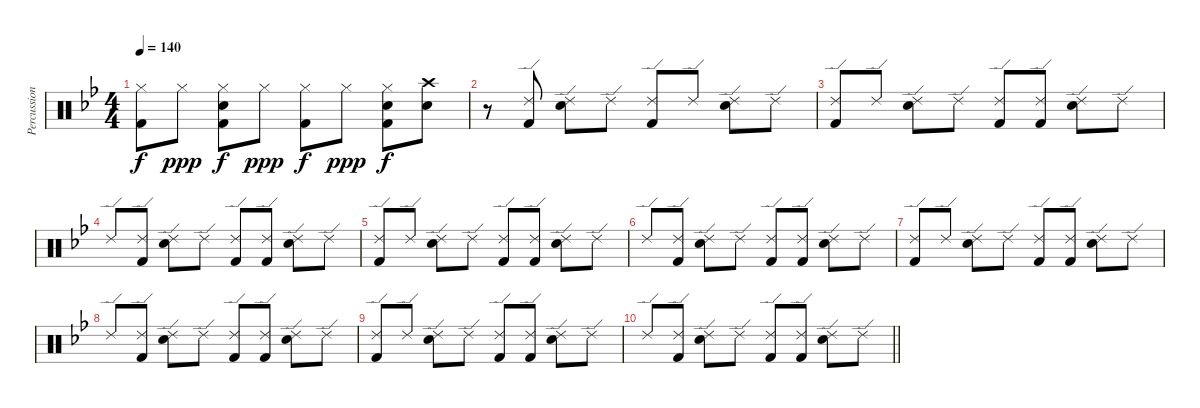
\track ("Percussion" "Percussion") {instrument percussion}
\staff {score}
\articulation defaults
\ts (4 4)
\tempo 140
\clef neutral
\ks bb
("Hi-Hat (closed)" "Kick (hit) 2").8{dy f} "Hi-Hat (closed)".8{dy ppp} ("Hi-Hat (closed)" "Electric Snare (hit)" "Kick (hit) 2").8{dy f} "Hi-Hat (closed)".8{dy ppp} ("Hi-Hat (closed)" "Kick (hit) 2").8{dy f} "Hi-Hat (closed)".8{dy ppp} ("Hi-Hat (closed)" "Electric Snare (hit)" "Kick (hit) 2").8{dy f} ("Crash high (hit)" "Electric Snare (hit)").8 |
r.8 ("Ride (edge) 2" "Kick (hit) 2").8 ("Ride (edge) 2" "Electric Snare (hit)").8 "Ride (edge) 2".8 ("Ride (edge) 2" "Kick (hit) 2").8 "Ride (edge) 2".8 ("Ride (edge) 2" "Electric Snare (hit)").8 "Ride (edge) 2".8 |
("Ride (edge) 2" "Kick (hit) 2").8 "Ride (edge) 2".8 ("Ride (edge) 2" "Electric Snare (hit)").8 "Ride (edge) 2".8 ("Ride (edge) 2" "Kick (hit) 2").8 ("Ride (edge) 2" "Kick (hit) 2").8 ("Ride (edge) 2" "Electric Snare (hit)").8 "Ride (edge) 2".8 |
"Ride (edge) 2".8 ("Ride (edge) 2" "Kick (hit) 2").8 ("Ride (edge) 2" "Electric Snare (hit)").8 "Ride (edge) 2".8 ("Ride (edge) 2" "Kick (hit) 2").8 ("Ride (edge) 2" "Kick (hit) 2").8 ("Ride (edge) 2" "Electric Snare (hit)").8 "Ride (edge) 2".8 |
("Ride (edge) 2" "Kick (hit) 2").8 "Ride (edge) 2".8 ("Ride (edge) 2" "Electric Snare (hit)").8 "Ride (edge) 2".8 ("Ride (edge) 2" "Kick (hit) 2").8 ("Ride (edge) 2" "Kick (hit) 2").8 ("Ride (edge) 2" "Electric Snare (hit)").8 "Ride (edge) 2".8 |
"Ride (edge) 2".8 ("Ride (edge) 2" "Kick (hit) 2").8 ("Ride (edge) 2" "Electric Snare (hit)").8 "Ride (edge) 2".8 ("Ride (edge) 2" "Kick (hit) 2").8 ("Ride (edge) 2" "Kick (hit) 2").8 ("Ride (edge) 2" "Electric Snare (hit)").8 "Ride (edge) 2".8 |
("Ride (edge) 2" "Kick (hit) 2").8 "Ride (edge) 2".8 ("Ride (edge) 2" "Electric Snare (hit)").8 "Ride (edge) 2".8 ("Ride (edge) 2" "Kick (hit) 2").8 ("Ride (edge) 2" "Kick (hit) 2").8 ("Ride (edge) 2" "Electric Snare (hit)").8 "Ride (edge) 2".8 |
"Ride (edge) 2".8 ("Ride (edge) 2" "Kick (hit) 2").8 ("Ride (edge) 2" "Electric Snare (hit)").8 "Ride (edge) 2".8 ("Ride (edge) 2" "Kick (hit) 2").8 ("Ride (edge) 2" "Kick (hit) 2").8 ("Ride (edge) 2" "Electric Snare (hit)").8 "Ride (edge) 2".8 |
("Ride (edge) 2" "Kick (hit) 2").8 "Ride (edge) 2".8 ("Ride (edge) 2" "Electric Snare (hit)").8 "Ride (edge) 2".8 ("Ride (edge) 2" "Kick (hit) 2").8 ("Ride (edge) 2" "Kick (hit) 2").8 ("Ride (edge) 2" "Electric Snare (hit)").8 "Ride (edge) 2".8 |
\barLineRight lightlight "Ride (edge) 2".8
("Ride (edge) 2" "Kick (hit) 2").8 ("Ride (edge) 2" "Electric Snare (hit)").8 "Ride (edge) 2".8 ("Ride (edge) 2" "Kick (hit) 2").8 ("Ride (edge) 2" "Kick (hit) 2").8 ("Ride (edge) 2" "Electric Snare (hit)").8 "Ride (edge) 2".8
